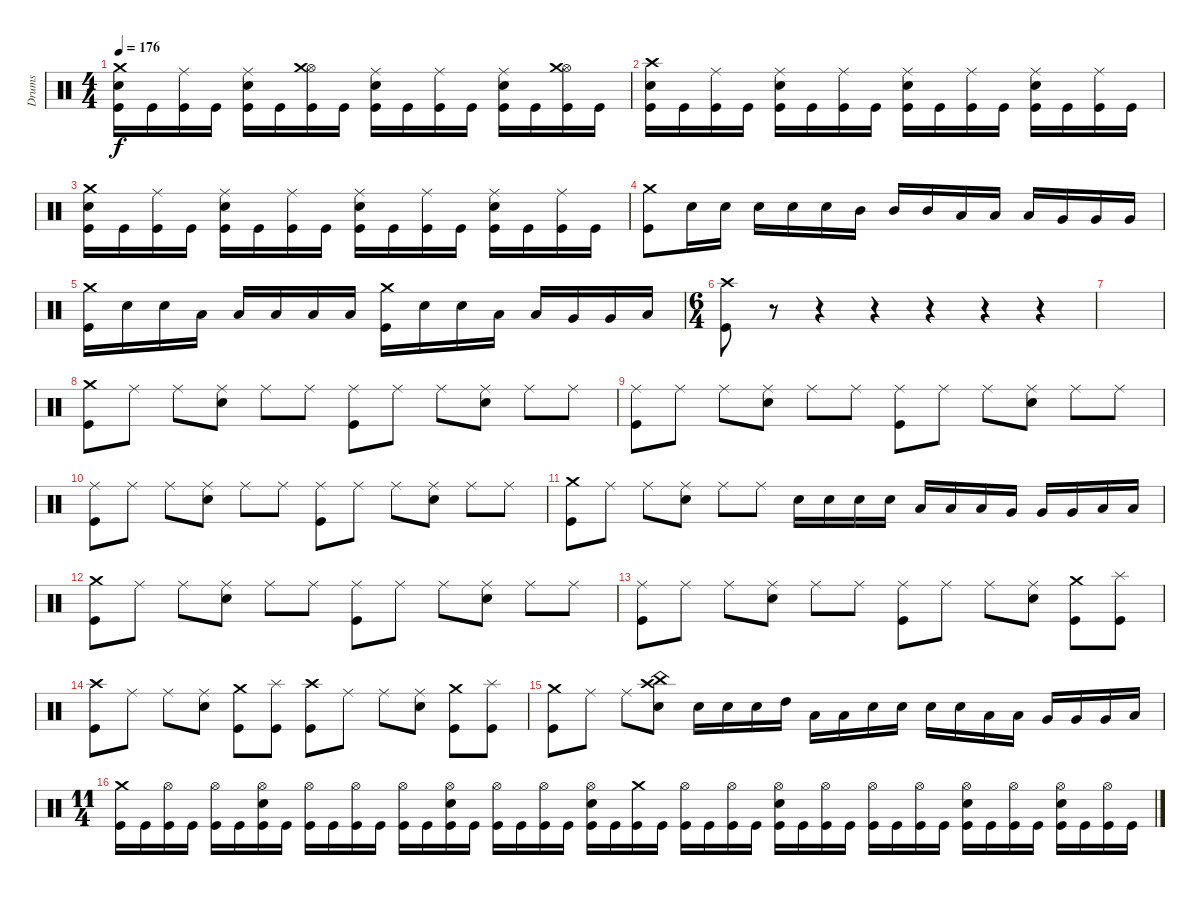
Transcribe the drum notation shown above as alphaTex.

\track ("Drums" "Drums") {instrument percussion}
\staff {score}
\articulation defaults
\ts (4 4)
\tempo 176
\clef neutral
\ks c
("Crash medium (hit)" "Electric Snare (hit)" "Kick (hit)").16{dy f} "Kick (hit)".16 ("Ride (middle)" "Kick (hit)").16 "Kick (hit)".16 ("Ride (middle)" "Electric Snare (hit)" "Kick (hit)").16 "Kick (hit)".16 ("Hi-Hat (open)" "Crash medium (hit)" "Kick (hit)").16 "Kick (hit)".16 ("Ride (middle)" "Electric Snare (hit)" "Kick (hit)").16 "Kick (hit)".16 ("Ride (middle)" "Kick (hit)").16 "Kick (hit)".16 ("Ride (middle)" "Electric Snare (hit)" "Kick (hit)").16 "Kick (hit)".16 ("Hi-Hat (open)" "Crash medium (hit)" "Kick (hit)").16 "Kick (hit)".16 |
("Crash high (hit)" "Electric Snare (hit)" "Kick (hit)").16 "Kick (hit)".16 ("Ride (middle)" "Kick (hit)").16 "Kick (hit)".16 ("Ride (middle)" "Electric Snare (hit)" "Kick (hit)").16 "Kick (hit)".16 ("Ride (middle)" "Kick (hit)").16 "Kick (hit)".16 ("Ride (middle)" "Electric Snare (hit)" "Kick (hit)").16 "Kick (hit)".16 ("Ride (middle)" "Kick (hit)").16 "Kick (hit)".16 ("Ride (middle)" "Electric Snare (hit)" "Kick (hit)").16 "Kick (hit)".16 ("Ride (middle)" "Kick (hit)").16 "Kick (hit)".16 |
("Crash medium (hit)" "Electric Snare (hit)" "Kick (hit)").16 "Kick (hit)".16 ("Ride (middle)" "Kick (hit)").16 "Kick (hit)".16 ("Ride (middle)" "Electric Snare (hit)" "Kick (hit)").16 "Kick (hit)".16 ("Ride (middle)" "Kick (hit)").16 "Kick (hit)".16 ("Ride (middle)" "Electric Snare (hit)" "Kick (hit)").16 "Kick (hit)".16 ("Ride (middle)" "Kick (hit)").16 "Kick (hit)".16 ("Ride (middle)" "Electric Snare (hit)" "Kick (hit)").16 "Kick (hit)".16 ("Ride (middle)" "Kick (hit)").16 "Kick (hit)".16 |
("Crash medium (hit)" "Kick (hit)").8 "Electric Snare (hit)".16 "Electric Snare (hit)".16 "Electric Snare (hit)".16 "Electric Snare (hit)".16 "Electric Snare (hit)".16 "Mid Tom (hit)".16 "Mid Tom (hit)".16 "Mid Tom (hit)".16 "Low Tom (hit)".16 "Low Tom (hit)".16 "Low Tom (hit)".16 "Very Low Tom (hit)".16 "Very Low Tom (hit)".16 "Very Low Tom (hit)".16 |
("Crash medium (hit)" "Kick (hit)").16 "Electric Snare (hit)".16 "Electric Snare (hit)".16 "Low Tom (hit)".16 "Low Tom (hit)".16 "Low Tom (hit)".16 "Low Tom (hit)".16 "Low Tom (hit)".16 ("Crash medium (hit)" "Kick (hit)").16 "Electric Snare (hit)".16 "Electric Snare (hit)".16 "Low Tom (hit)".16 "Low Tom (hit)".16 "Very Low Tom (hit)".16 "Very Low Tom (hit)".16 "Low Floor Tom (hit)".16 |
\ts (6 4)
("Crash high (hit)" "Kick (hit)").8 r.8 r.4 r.4 r.4 r.4 r.4 |
|
("Crash medium (hit)" "Kick (hit)").8 "Ride (middle)".8 "Ride (middle)".8 ("Ride (middle)" "Electric Snare (hit)").8 "Ride (middle)".8 "Ride (middle)".8 ("Ride (middle)" "Kick (hit)").8 "Ride (middle)".8 "Ride (middle)".8 ("Ride (middle)" "Electric Snare (hit)").8 "Ride (middle)".8 "Ride (middle)".8 |
("Ride (middle)" "Kick (hit)").8 "Ride (middle)".8 "Ride (middle)".8 ("Ride (middle)" "Electric Snare (hit)").8 "Ride (middle)".8 "Ride (middle)".8 ("Ride (middle)" "Kick (hit)").8 "Ride (middle)".8 "Ride (middle)".8 ("Ride (middle)" "Electric Snare (hit)").8 "Ride (middle)".8 "Ride (middle)".8 |
("Ride (middle)" "Kick (hit)").8 "Ride (middle)".8 "Ride (middle)".8 ("Ride (middle)" "Electric Snare (hit)").8 "Ride (middle)".8 "Ride (middle)".8 ("Ride (middle)" "Kick (hit)").8 "Ride (middle)".8 "Ride (middle)".8 ("Ride (middle)" "Electric Snare (hit)").8 "Ride (middle)".8 "Ride (middle)".8 |
("Crash medium (hit)" "Kick (hit)").8 "Ride (middle)".8 "Ride (middle)".8 ("Ride (middle)" "Electric Snare (hit)").8 "Ride (middle)".8 "Ride (middle)".8 "Electric Snare (hit)".16 "Electric Snare (hit)".16 "Electric Snare (hit)".16 "Electric Snare (hit)".16 "Low Tom (hit)".16 "Low Tom (hit)".16 "Low Tom (hit)".16 "Very Low Tom (hit)".16 "Very Low Tom (hit)".16 "Very Low Tom (hit)".16 "Low Floor Tom (hit)".16 "Low Floor Tom (hit)".16 |
("Crash medium (hit)" "Kick (hit)").8 "Ride (middle)".8 "Ride (middle)".8 ("Ride (middle)" "Electric Snare (hit)").8 "Ride (middle)".8 "Ride (middle)".8 ("Ride (middle)" "Kick (hit)").8 "Ride (middle)".8 "Ride (middle)".8 ("Ride (middle)" "Electric Snare (hit)").8 "Ride (middle)".8 "Ride (middle)".8 |
("Ride (middle)" "Kick (hit)").8 "Ride (middle)".8 "Ride (middle)".8 ("Ride (middle)" "Electric Snare (hit)").8 "Ride (middle)".8 "Ride (middle)".8 ("Ride (middle)" "Kick (hit)").8 "Ride (middle)".8 "Ride (middle)".8 ("Ride (middle)" "Electric Snare (hit)").8 ("Crash medium (hit)" "Kick (hit)").8 ("Splash (hit)" "Kick (hit)").8 |
("Crash high (hit)" "Kick (hit)").8 "Ride (middle)".8 "Ride (middle)".8 ("Ride (middle)" "Electric Snare (hit)").8 ("Crash medium (hit)" "Kick (hit)").8 ("Splash (hit)" "Kick (hit)").8 ("Crash high (hit)" "Kick (hit)").8 "Ride (middle)".8 "Ride (middle)".8 ("Ride (middle)" "Electric Snare (hit)").8 ("Crash medium (hit)" "Kick (hit)").8 ("Splash (hit)" "Kick (hit)").8 |
("Crash medium (hit)" "Kick (hit)").8 "Ride (middle)".8 "Ride (middle)".8 ("Crash high (hit)" "China (hit)" "Electric Snare (hit)").8 "Electric Snare (hit)".16 "Electric Snare (hit)".16 "Electric Snare (hit)".16 "High Tom (hit)".16 "Low Tom (hit)".16 "Low Tom (hit)".16 "Electric Snare (hit)".16 "Electric Snare (hit)".16 "Electric Snare (hit)".16 "Electric Snare (hit)".16 "Low Tom (hit)".16 "Low Tom (hit)".16 "Very Low Tom (hit)".16 "Very Low Tom (hit)".16 "Very Low Tom (hit)".16 "Low Floor Tom (hit)".16 |
\ts (11 4)
("Crash medium (hit)" "Kick (hit)").16 "Kick (hit)".16 ("Hi-Hat (open)" "Kick (hit)").16 "Kick (hit)".16 ("Hi-Hat (open)" "Kick (hit)").16 "Kick (hit)".16 ("Hi-Hat (open)" "Electric Snare (hit)" "Kick (hit)").16 "Kick (hit)".16 ("Hi-Hat (open)" "Kick (hit)").16 "Kick (hit)".16 ("Hi-Hat (open)" "Kick (hit)").16 "Kick (hit)".16 ("Hi-Hat (open)" "Kick (hit)").16 "Kick (hit)".16 ("Hi-Hat (open)" "Electric Snare (hit)" "Kick (hit)").16 "Kick (hit)".16 ("Hi-Hat (open)" "Kick (hit)").16 "Kick (hit)".16 ("Hi-Hat (open)" "Kick (hit)").16 "Kick (hit)".16 ("Hi-Hat (open)" "Electric Snare (hit)" "Kick (hit)").16 "Kick (hit)".16 ("Crash medium (hit)" "Kick (hit)").16 "Kick (hit)".16 ("Hi-Hat (open)" "Kick (hit)").16 "Kick (hit)".16 ("Hi-Hat (open)" "Kick (hit)").16 "Kick (hit)".16 ("Hi-Hat (open)" "Electric Snare (hit)" "Kick (hit)").16 "Kick (hit)".16 ("Hi-Hat (open)" "Kick (hit)").16 "Kick (hit)".16 ("Hi-Hat (open)" "Kick (hit)").16 "Kick (hit)".16 ("Hi-Hat (open)" "Kick (hit)").16 "Kick (hit)".16 ("Hi-Hat (open)" "Electric Snare (hit)" "Kick (hit)").16 "Kick (hit)".16 ("Hi-Hat (open)" "Kick (hit)").16 "Kick (hit)".16 ("Hi-Hat (open)" "Electric Snare (hit)" "Kick (hit)").16 "Kick (hit)".16 ("Hi-Hat (open)" "Kick (hit)").16 "Kick (hit)".16
